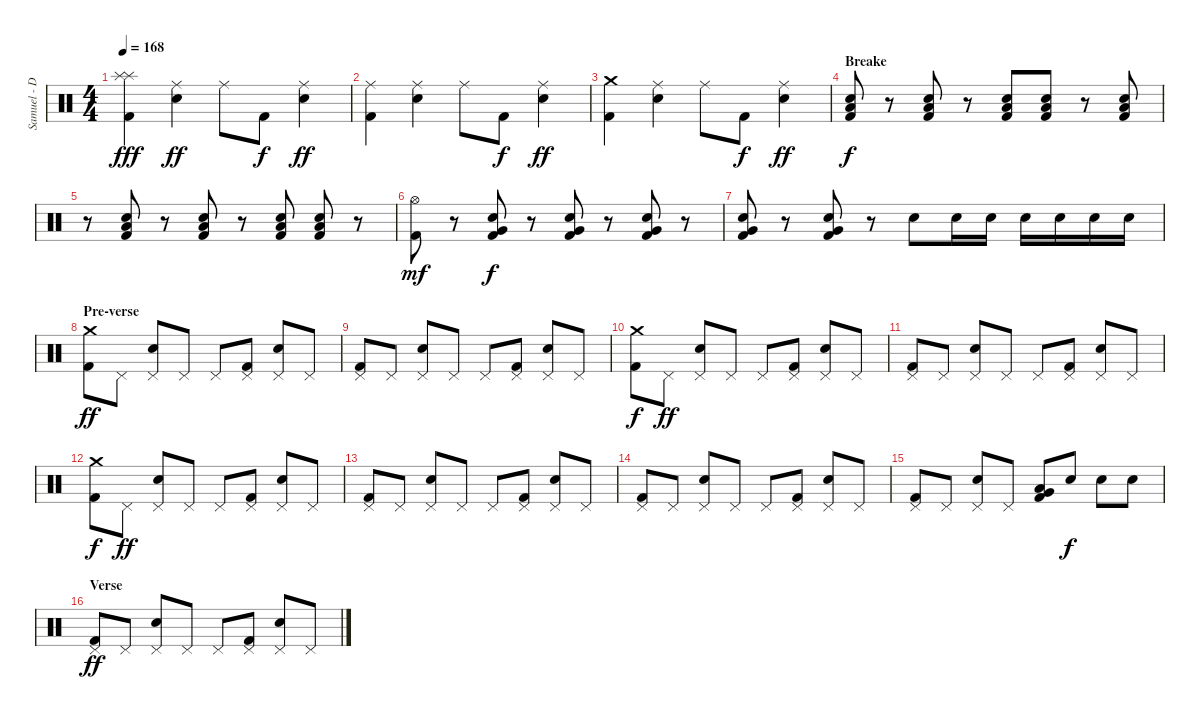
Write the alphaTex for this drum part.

\track ("Samuel - Drums" "Samuel - D") {instrument percussion}
\staff {score}
\articulation defaults
\ts (4 4)
\tempo 168
\clef neutral
\ks c
("Splash (hit)" "Splash (hit)" "Kick (hit) 2").4{dy fff} ("Ride (middle)" "Electric Snare (hit)").4{dy ff} "Ride (middle)".8 "Kick (hit) 2".8{dy f} ("Ride (middle)" "Electric Snare (hit)").4{dy ff} |
("Ride (middle)" "Kick (hit) 2").4 ("Ride (middle)" "Electric Snare (hit)").4 "Ride (middle)".8 "Kick (hit) 2".8{dy f} ("Ride (middle)" "Electric Snare (hit)").4{dy ff} |
("Crash medium (hit)" "Kick (hit) 2").4 ("Ride (middle)" "Electric Snare (hit)").4 "Ride (middle)".8 "Kick (hit) 2".8{dy f} ("Ride (middle)" "Electric Snare (hit)").4{dy ff} |
\section ("" "Breake")
("Electric Snare (hit)" "Low Tom (hit)" "Kick (hit) 2").8{dy f} r.8 ("Electric Snare (hit)" "Low Tom (hit)" "Kick (hit) 2").8 r.8 ("Electric Snare (hit)" "Low Tom (hit)" "Kick (hit) 2").8 ("Electric Snare (hit)" "Low Tom (hit)" "Kick (hit) 2").8 r.8 ("Electric Snare (hit)" "Low Tom (hit)" "Kick (hit) 2").8 |
r.8 ("Electric Snare (hit)" "Low Tom (hit)" "Kick (hit) 2").8 r.8 ("Electric Snare (hit)" "Low Tom (hit)" "Kick (hit) 2").8 r.8 ("Electric Snare (hit)" "Low Tom (hit)" "Kick (hit) 2").8 ("Electric Snare (hit)" "Low Tom (hit)" "Kick (hit) 2").8 r.8 |
("Hi-Hat (open)" "Kick (hit) 2").8{dy mf} r.8 ("Electric Snare (hit)" "Very Low Tom (hit)" "Kick (hit) 2").8{dy f} r.8 ("Electric Snare (hit)" "Very Low Tom (hit)" "Kick (hit) 2").8 r.8 ("Electric Snare (hit)" "Very Low Tom (hit)" "Kick (hit) 2").8 r.8 |
("Electric Snare (hit)" "Very Low Tom (hit)" "Kick (hit) 2").8 r.8 ("Electric Snare (hit)" "Very Low Tom (hit)" "Kick (hit) 2").8 r.8 "Electric Snare (hit)".8 "Electric Snare (hit)".16 "Electric Snare (hit)".16 "Electric Snare (hit)".16 "Electric Snare (hit)".16 "Electric Snare (hit)".16 "Electric Snare (hit)".16 |
\section ("" "Pre-verse")
("Crash medium (hit)" "Kick (hit) 2").8{dy ff} "Pedal Hi-Hat (hit)".8 ("Pedal Hi-Hat (hit)" "Electric Snare (hit)").8 "Pedal Hi-Hat (hit)".8 "Pedal Hi-Hat (hit)".8 ("Pedal Hi-Hat (hit)" "Kick (hit) 2").8 ("Pedal Hi-Hat (hit)" "Electric Snare (hit)").8 "Pedal Hi-Hat (hit)".8 |
("Pedal Hi-Hat (hit)" "Kick (hit) 2").8 "Pedal Hi-Hat (hit)".8 ("Pedal Hi-Hat (hit)" "Electric Snare (hit)").8 "Pedal Hi-Hat (hit)".8 "Pedal Hi-Hat (hit)".8 ("Pedal Hi-Hat (hit)" "Kick (hit) 2").8 ("Pedal Hi-Hat (hit)" "Electric Snare (hit)").8 "Pedal Hi-Hat (hit)".8 |
("Crash medium (hit)" "Kick (hit) 2").8{dy f} "Pedal Hi-Hat (hit)".8{dy ff} ("Pedal Hi-Hat (hit)" "Electric Snare (hit)").8 "Pedal Hi-Hat (hit)".8 "Pedal Hi-Hat (hit)".8 ("Pedal Hi-Hat (hit)" "Kick (hit) 2").8 ("Pedal Hi-Hat (hit)" "Electric Snare (hit)").8 "Pedal Hi-Hat (hit)".8 |
("Pedal Hi-Hat (hit)" "Kick (hit) 2").8 "Pedal Hi-Hat (hit)".8 ("Pedal Hi-Hat (hit)" "Electric Snare (hit)").8 "Pedal Hi-Hat (hit)".8 "Pedal Hi-Hat (hit)".8 ("Pedal Hi-Hat (hit)" "Kick (hit) 2").8 ("Pedal Hi-Hat (hit)" "Electric Snare (hit)").8 "Pedal Hi-Hat (hit)".8 |
("Crash medium (hit)" "Kick (hit) 2").8{dy f} "Pedal Hi-Hat (hit)".8{dy ff} ("Pedal Hi-Hat (hit)" "Electric Snare (hit)").8 "Pedal Hi-Hat (hit)".8 "Pedal Hi-Hat (hit)".8 ("Pedal Hi-Hat (hit)" "Kick (hit) 2").8 ("Pedal Hi-Hat (hit)" "Electric Snare (hit)").8 "Pedal Hi-Hat (hit)".8 |
("Pedal Hi-Hat (hit)" "Kick (hit) 2").8 "Pedal Hi-Hat (hit)".8 ("Pedal Hi-Hat (hit)" "Electric Snare (hit)").8 "Pedal Hi-Hat (hit)".8 "Pedal Hi-Hat (hit)".8 ("Pedal Hi-Hat (hit)" "Kick (hit) 2").8 ("Pedal Hi-Hat (hit)" "Electric Snare (hit)").8 "Pedal Hi-Hat (hit)".8 |
("Pedal Hi-Hat (hit)" "Kick (hit) 2").8 "Pedal Hi-Hat (hit)".8 ("Pedal Hi-Hat (hit)" "Electric Snare (hit)").8 "Pedal Hi-Hat (hit)".8 "Pedal Hi-Hat (hit)".8 ("Pedal Hi-Hat (hit)" "Kick (hit) 2").8 ("Pedal Hi-Hat (hit)" "Electric Snare (hit)").8 "Pedal Hi-Hat (hit)".8 |
("Pedal Hi-Hat (hit)" "Kick (hit) 2").8 "Pedal Hi-Hat (hit)".8 ("Pedal Hi-Hat (hit)" "Electric Snare (hit)").8 "Pedal Hi-Hat (hit)".8 ("Low Tom (hit)" "Very Low Tom (hit)" "Kick (hit) 2").8 "Electric Snare (hit)".8{dy f} "Electric Snare (hit)".8 "Electric Snare (hit)".8 |
\section ("" "Verse")
("Pedal Hi-Hat (hit)" "Kick (hit) 2").8{dy ff} "Pedal Hi-Hat (hit)".8 ("Pedal Hi-Hat (hit)" "Electric Snare (hit)").8 "Pedal Hi-Hat (hit)".8 "Pedal Hi-Hat (hit)".8 ("Pedal Hi-Hat (hit)" "Kick (hit) 2").8 ("Pedal Hi-Hat (hit)" "Electric Snare (hit)").8 "Pedal Hi-Hat (hit)".8
